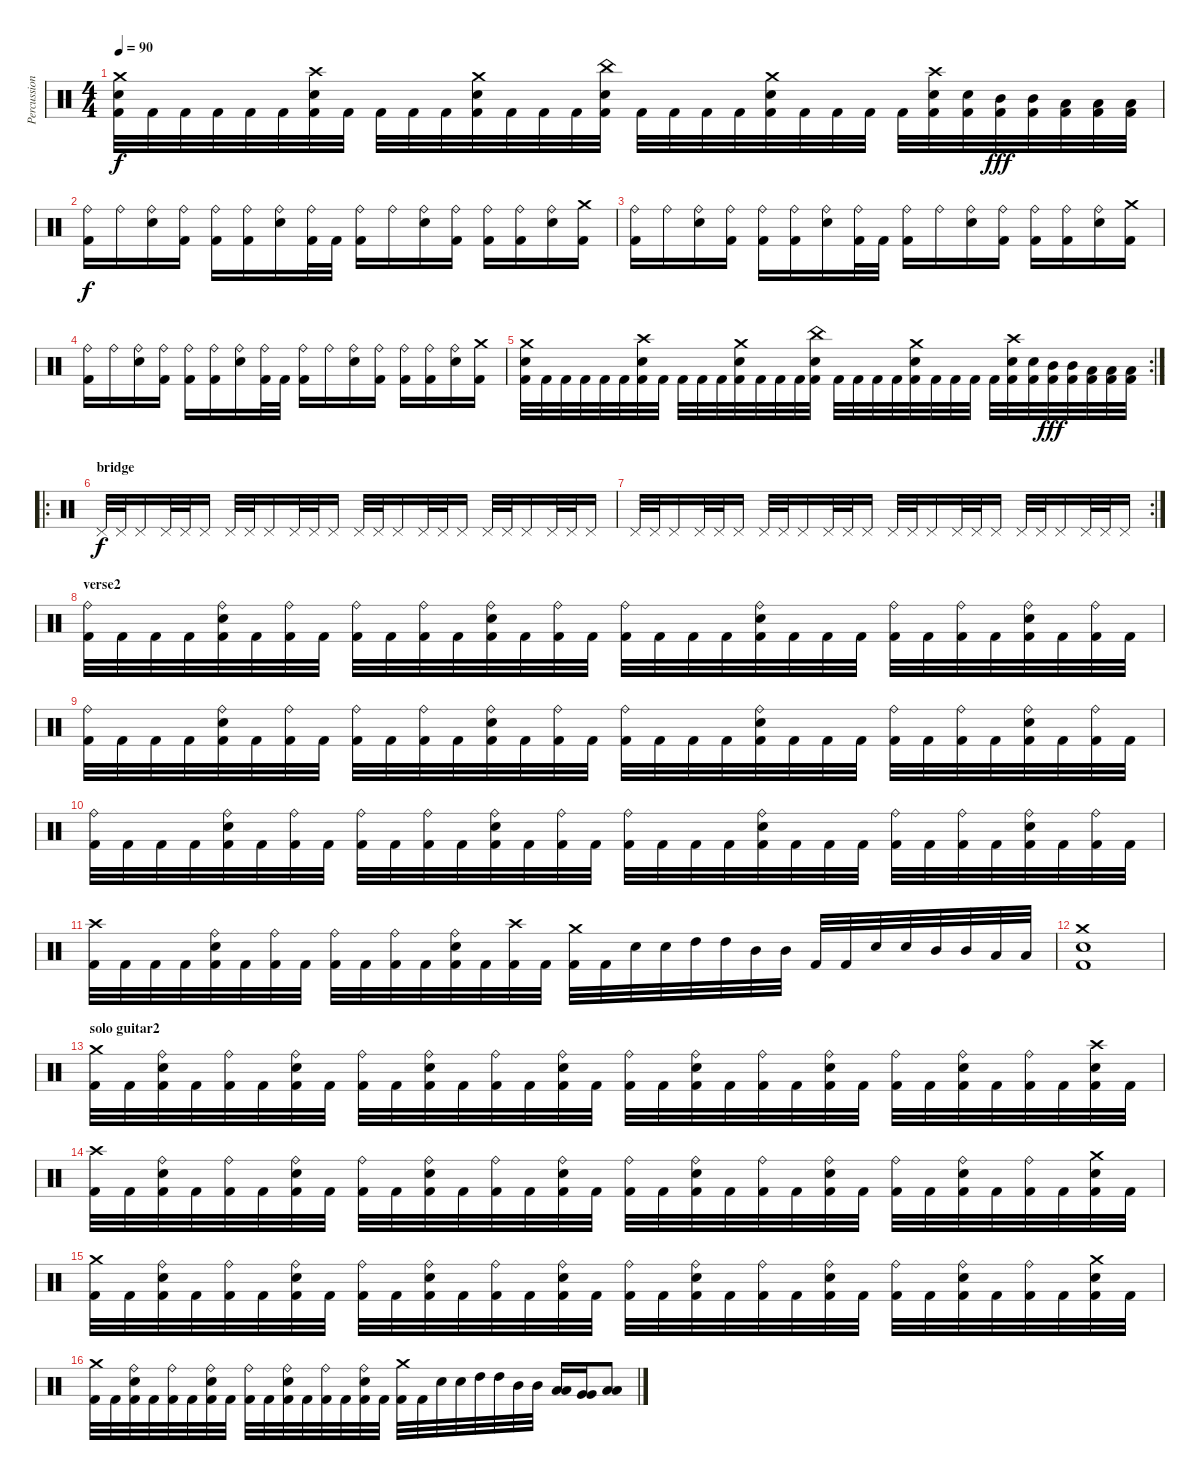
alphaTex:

\track ("Percussions" "Percussion") {instrument percussion}
\staff {score}
\articulation defaults
\ts (4 4)
\tempo 90
\clef neutral
\ks c
("Crash medium (hit)" "Electric Snare (hit)" "Kick (hit) 2").32{dy f} "Kick (hit) 2".32 "Kick (hit) 2".32 "Kick (hit) 2".32 "Kick (hit) 2".32 "Kick (hit) 2".32 ("Crash high (hit)" "Electric Snare (hit)" "Kick (hit) 2").32 "Kick (hit) 2".32 "Kick (hit) 2".32 "Kick (hit) 2".32 "Kick (hit) 2".32 ("Crash medium (hit)" "Electric Snare (hit)" "Kick (hit) 2").32 "Kick (hit) 2".32 "Kick (hit) 2".32 "Kick (hit) 2".32 ("China (hit)" "Electric Snare (hit)" "Kick (hit) 2").32 "Kick (hit) 2".32 "Kick (hit) 2".32 "Kick (hit) 2".32 "Kick (hit) 2".32 ("Crash medium (hit)" "Electric Snare (hit)" "Kick (hit) 2").32 "Kick (hit) 2".32 "Kick (hit) 2".32 "Kick (hit) 2".32 "Kick (hit) 2".32 ("Crash high (hit)" "Electric Snare (hit)" "Kick (hit) 2").32 ("Electric Snare (hit)" "Kick (hit) 2").32 ("Mid Tom (hit)" "Kick (hit) 2").32{dy fff} ("Mid Tom (hit)" "Kick (hit) 2").32 ("Low Tom (hit)" "Kick (hit) 2").32 ("Low Tom (hit)" "Kick (hit) 2").32 ("Low Tom (hit)" "Kick (hit) 2").32 |
("Ride (bell)" "Kick (hit) 2").16{dy f} "Ride (bell)".16 ("Ride (bell)" "Electric Snare (hit)").16 ("Ride (bell)" "Kick (hit) 2").16 ("Ride (bell)" "Kick (hit) 2").16 ("Ride (bell)" "Kick (hit) 2").16 ("Ride (bell)" "Electric Snare (hit)").16 ("Ride (bell)" "Kick (hit) 2").32 "Kick (hit) 2".32 ("Ride (bell)" "Kick (hit) 2").16 "Ride (bell)".16 ("Ride (bell)" "Electric Snare (hit)").16 ("Ride (bell)" "Kick (hit) 2").16 ("Ride (bell)" "Kick (hit) 2").16 ("Ride (bell)" "Kick (hit) 2").16 ("Ride (bell)" "Electric Snare (hit)").16 ("Crash medium (hit)" "Kick (hit) 2").16 |
("Ride (bell)" "Kick (hit) 2").16 "Ride (bell)".16 ("Ride (bell)" "Electric Snare (hit)").16 ("Ride (bell)" "Kick (hit) 2").16 ("Ride (bell)" "Kick (hit) 2").16 ("Ride (bell)" "Kick (hit) 2").16 ("Ride (bell)" "Electric Snare (hit)").16 ("Ride (bell)" "Kick (hit) 2").32 "Kick (hit) 2".32 ("Ride (bell)" "Kick (hit) 2").16 "Ride (bell)".16 ("Ride (bell)" "Electric Snare (hit)").16 ("Ride (bell)" "Kick (hit) 2").16 ("Ride (bell)" "Kick (hit) 2").16 ("Ride (bell)" "Kick (hit) 2").16 ("Ride (bell)" "Electric Snare (hit)").16 ("Crash medium (hit)" "Kick (hit) 2").16 |
("Ride (bell)" "Kick (hit) 2").16 "Ride (bell)".16 ("Ride (bell)" "Electric Snare (hit)").16 ("Ride (bell)" "Kick (hit) 2").16 ("Ride (bell)" "Kick (hit) 2").16 ("Ride (bell)" "Kick (hit) 2").16 ("Ride (bell)" "Electric Snare (hit)").16 ("Ride (bell)" "Kick (hit) 2").32 "Kick (hit) 2".32 ("Ride (bell)" "Kick (hit) 2").16 "Ride (bell)".16 ("Ride (bell)" "Electric Snare (hit)").16 ("Ride (bell)" "Kick (hit) 2").16 ("Ride (bell)" "Kick (hit) 2").16 ("Ride (bell)" "Kick (hit) 2").16 ("Ride (bell)" "Electric Snare (hit)").16 ("Crash medium (hit)" "Kick (hit) 2").16 |
\rc 2
("Crash medium (hit)" "Electric Snare (hit)" "Kick (hit) 2").32 "Kick (hit) 2".32 "Kick (hit) 2".32 "Kick (hit) 2".32 "Kick (hit) 2".32 "Kick (hit) 2".32 ("Crash high (hit)" "Electric Snare (hit)" "Kick (hit) 2").32 "Kick (hit) 2".32 "Kick (hit) 2".32 "Kick (hit) 2".32 "Kick (hit) 2".32 ("Crash medium (hit)" "Electric Snare (hit)" "Kick (hit) 2").32 "Kick (hit) 2".32 "Kick (hit) 2".32 "Kick (hit) 2".32 ("China (hit)" "Electric Snare (hit)" "Kick (hit) 2").32 "Kick (hit) 2".32 "Kick (hit) 2".32 "Kick (hit) 2".32 "Kick (hit) 2".32 ("Crash medium (hit)" "Electric Snare (hit)" "Kick (hit) 2").32 "Kick (hit) 2".32 "Kick (hit) 2".32 "Kick (hit) 2".32 "Kick (hit) 2".32 ("Crash high (hit)" "Electric Snare (hit)" "Kick (hit) 2").32 ("Electric Snare (hit)" "Kick (hit) 2").32 ("Mid Tom (hit)" "Kick (hit) 2").32{dy fff} ("Mid Tom (hit)" "Kick (hit) 2").32 ("Low Tom (hit)" "Kick (hit) 2").32 ("Low Tom (hit)" "Kick (hit) 2").32 ("Low Tom (hit)" "Kick (hit) 2").32 |
\ro
\section ("" "bridge")
"Pedal Hi-Hat (hit)".32{dy f} "Pedal Hi-Hat (hit)".32 "Pedal Hi-Hat (hit)".16 "Pedal Hi-Hat (hit)".32 "Pedal Hi-Hat (hit)".32 "Pedal Hi-Hat (hit)".16 "Pedal Hi-Hat (hit)".32 "Pedal Hi-Hat (hit)".32 "Pedal Hi-Hat (hit)".16 "Pedal Hi-Hat (hit)".32 "Pedal Hi-Hat (hit)".32 "Pedal Hi-Hat (hit)".16 "Pedal Hi-Hat (hit)".32 "Pedal Hi-Hat (hit)".32 "Pedal Hi-Hat (hit)".16 "Pedal Hi-Hat (hit)".32 "Pedal Hi-Hat (hit)".32 "Pedal Hi-Hat (hit)".16 "Pedal Hi-Hat (hit)".32 "Pedal Hi-Hat (hit)".32 "Pedal Hi-Hat (hit)".16 "Pedal Hi-Hat (hit)".32 "Pedal Hi-Hat (hit)".32 "Pedal Hi-Hat (hit)".16 |
\rc 2 "Pedal Hi-Hat (hit)".32 "Pedal Hi-Hat (hit)".32 "Pedal Hi-Hat (hit)".16 "Pedal Hi-Hat (hit)".32 "Pedal Hi-Hat (hit)".32 "Pedal Hi-Hat (hit)".16 "Pedal Hi-Hat (hit)".32 "Pedal Hi-Hat (hit)".32 "Pedal Hi-Hat (hit)".16 "Pedal Hi-Hat (hit)".32 "Pedal Hi-Hat (hit)".32 "Pedal Hi-Hat (hit)".16 "Pedal Hi-Hat (hit)".32 "Pedal Hi-Hat (hit)".32 "Pedal Hi-Hat (hit)".16 "Pedal Hi-Hat (hit)".32 "Pedal Hi-Hat (hit)".32 "Pedal Hi-Hat (hit)".16 "Pedal Hi-Hat (hit)".32 "Pedal Hi-Hat (hit)".32 "Pedal Hi-Hat (hit)".16 "Pedal Hi-Hat (hit)".32 "Pedal Hi-Hat (hit)".32 "Pedal Hi-Hat (hit)".16
|
\section ("" "verse2")
("Ride (bell)" "Kick (hit) 2").32 "Kick (hit) 2".32 "Kick (hit) 2".32 "Kick (hit) 2".32 ("Ride (bell)" "Electric Snare (hit)" "Kick (hit) 2").32 "Kick (hit) 2".32 ("Ride (bell)" "Kick (hit) 2").32 "Kick (hit) 2".32 ("Ride (bell)" "Kick (hit) 2").32 "Kick (hit) 2".32 ("Ride (bell)" "Kick (hit) 2").32 "Kick (hit) 2".32 ("Ride (bell)" "Electric Snare (hit)" "Kick (hit) 2").32 "Kick (hit) 2".32 ("Ride (bell)" "Kick (hit) 2").32 "Kick (hit) 2".32 ("Ride (bell)" "Kick (hit) 2").32 "Kick (hit) 2".32 "Kick (hit) 2".32 "Kick (hit) 2".32 ("Ride (bell)" "Electric Snare (hit)" "Kick (hit) 2").32 "Kick (hit) 2".32 "Kick (hit) 2".32 "Kick (hit) 2".32 ("Ride (bell)" "Kick (hit) 2").32 "Kick (hit) 2".32 ("Ride (bell)" "Kick (hit) 2").32 "Kick (hit) 2".32 ("Ride (bell)" "Electric Snare (hit)" "Kick (hit) 2").32 "Kick (hit) 2".32 ("Ride (bell)" "Kick (hit) 2").32 "Kick (hit) 2".32 |
("Ride (bell)" "Kick (hit) 2").32 "Kick (hit) 2".32 "Kick (hit) 2".32 "Kick (hit) 2".32 ("Ride (bell)" "Electric Snare (hit)" "Kick (hit) 2").32 "Kick (hit) 2".32 ("Ride (bell)" "Kick (hit) 2").32 "Kick (hit) 2".32 ("Ride (bell)" "Kick (hit) 2").32 "Kick (hit) 2".32 ("Ride (bell)" "Kick (hit) 2").32 "Kick (hit) 2".32 ("Ride (bell)" "Electric Snare (hit)" "Kick (hit) 2").32 "Kick (hit) 2".32 ("Ride (bell)" "Kick (hit) 2").32 "Kick (hit) 2".32 ("Ride (bell)" "Kick (hit) 2").32 "Kick (hit) 2".32 "Kick (hit) 2".32 "Kick (hit) 2".32 ("Ride (bell)" "Electric Snare (hit)" "Kick (hit) 2").32 "Kick (hit) 2".32 "Kick (hit) 2".32 "Kick (hit) 2".32 ("Ride (bell)" "Kick (hit) 2").32 "Kick (hit) 2".32 ("Ride (bell)" "Kick (hit) 2").32 "Kick (hit) 2".32 ("Ride (bell)" "Electric Snare (hit)" "Kick (hit) 2").32 "Kick (hit) 2".32 ("Ride (bell)" "Kick (hit) 2").32 "Kick (hit) 2".32 |
("Ride (bell)" "Kick (hit) 2").32 "Kick (hit) 2".32 "Kick (hit) 2".32 "Kick (hit) 2".32 ("Ride (bell)" "Electric Snare (hit)" "Kick (hit) 2").32 "Kick (hit) 2".32 ("Ride (bell)" "Kick (hit) 2").32 "Kick (hit) 2".32 ("Ride (bell)" "Kick (hit) 2").32 "Kick (hit) 2".32 ("Ride (bell)" "Kick (hit) 2").32 "Kick (hit) 2".32 ("Ride (bell)" "Electric Snare (hit)" "Kick (hit) 2").32 "Kick (hit) 2".32 ("Ride (bell)" "Kick (hit) 2").32 "Kick (hit) 2".32 ("Ride (bell)" "Kick (hit) 2").32 "Kick (hit) 2".32 "Kick (hit) 2".32 "Kick (hit) 2".32 ("Ride (bell)" "Electric Snare (hit)" "Kick (hit) 2").32 "Kick (hit) 2".32 "Kick (hit) 2".32 "Kick (hit) 2".32 ("Ride (bell)" "Kick (hit) 2").32 "Kick (hit) 2".32 ("Ride (bell)" "Kick (hit) 2").32 "Kick (hit) 2".32 ("Ride (bell)" "Electric Snare (hit)" "Kick (hit) 2").32 "Kick (hit) 2".32 ("Ride (bell)" "Kick (hit) 2").32 "Kick (hit) 2".32 |
("Crash high (hit)" "Kick (hit) 2").32 "Kick (hit) 2".32 "Kick (hit) 2".32 "Kick (hit) 2".32 ("Ride (bell)" "Electric Snare (hit)" "Kick (hit) 2").32 "Kick (hit) 2".32 ("Ride (bell)" "Kick (hit) 2").32 "Kick (hit) 2".32 ("Ride (bell)" "Kick (hit) 2").32 "Kick (hit) 2".32 ("Ride (bell)" "Kick (hit) 2").32 "Kick (hit) 2".32 ("Ride (bell)" "Electric Snare (hit)" "Kick (hit) 2").32 "Kick (hit) 2".32 ("Crash high (hit)" "Kick (hit) 2").32 "Kick (hit) 2".32 ("Crash medium (hit)" "Kick (hit) 2").32 "Kick (hit) 2".32 "Electric Snare (hit)".32 "Electric Snare (hit)".32 "High Tom (hit)".32 "High Tom (hit)".32 "Mid Tom (hit)".32 "Mid Tom (hit)".32 "Kick (hit) 2".32 "Kick (hit) 2".32 "Electric Snare (hit)".32 "Electric Snare (hit)".32 "Mid Tom (hit)".32 "Mid Tom (hit)".32 "Low Tom (hit)".32 "Low Tom (hit)".32 |
("Crash medium (hit)" "Electric Snare (hit)" "Kick (hit) 2").1 |
\section ("" "solo guitar2")
("Crash medium (hit)" "Kick (hit) 2").32 "Kick (hit) 2".32 ("Ride (bell)" "Electric Snare (hit)" "Kick (hit) 2").32 "Kick (hit) 2".32 ("Ride (bell)" "Kick (hit) 2").32 "Kick (hit) 2".32 ("Ride (bell)" "Electric Snare (hit)" "Kick (hit) 2").32 "Kick (hit) 2".32 ("Ride (bell)" "Kick (hit) 2").32 "Kick (hit) 2".32 ("Ride (bell)" "Electric Snare (hit)" "Kick (hit) 2").32 "Kick (hit) 2".32 ("Ride (bell)" "Kick (hit) 2").32 "Kick (hit) 2".32 ("Ride (bell)" "Electric Snare (hit)" "Kick (hit) 2").32 "Kick (hit) 2".32 ("Ride (bell)" "Kick (hit) 2").32 "Kick (hit) 2".32 ("Ride (bell)" "Electric Snare (hit)" "Kick (hit) 2").32 "Kick (hit) 2".32 ("Ride (bell)" "Kick (hit) 2").32 "Kick (hit) 2".32 ("Ride (bell)" "Electric Snare (hit)" "Kick (hit) 2").32 "Kick (hit) 2".32 ("Ride (bell)" "Kick (hit) 2").32 "Kick (hit) 2".32 ("Ride (bell)" "Electric Snare (hit)" "Kick (hit) 2").32 "Kick (hit) 2".32 ("Ride (bell)" "Kick (hit) 2").32 "Kick (hit) 2".32 ("Crash high (hit)" "Electric Snare (hit)" "Kick (hit) 2").32 "Kick (hit) 2".32 |
("Crash high (hit)" "Kick (hit) 2").32 "Kick (hit) 2".32 ("Ride (bell)" "Electric Snare (hit)" "Kick (hit) 2").32 "Kick (hit) 2".32 ("Ride (bell)" "Kick (hit) 2").32 "Kick (hit) 2".32 ("Ride (bell)" "Electric Snare (hit)" "Kick (hit) 2").32 "Kick (hit) 2".32 ("Ride (bell)" "Kick (hit) 2").32 "Kick (hit) 2".32 ("Ride (bell)" "Electric Snare (hit)" "Kick (hit) 2").32 "Kick (hit) 2".32 ("Ride (bell)" "Kick (hit) 2").32 "Kick (hit) 2".32 ("Ride (bell)" "Electric Snare (hit)" "Kick (hit) 2").32 "Kick (hit) 2".32 ("Ride (bell)" "Kick (hit) 2").32 "Kick (hit) 2".32 ("Ride (bell)" "Electric Snare (hit)" "Kick (hit) 2").32 "Kick (hit) 2".32 ("Ride (bell)" "Kick (hit) 2").32 "Kick (hit) 2".32 ("Ride (bell)" "Electric Snare (hit)" "Kick (hit) 2").32 "Kick (hit) 2".32 ("Ride (bell)" "Kick (hit) 2").32 "Kick (hit) 2".32 ("Ride (bell)" "Electric Snare (hit)" "Kick (hit) 2").32 "Kick (hit) 2".32 ("Ride (bell)" "Kick (hit) 2").32 "Kick (hit) 2".32 ("Crash medium (hit)" "Electric Snare (hit)" "Kick (hit) 2").32 "Kick (hit) 2".32 |
("Crash medium (hit)" "Kick (hit) 2").32 "Kick (hit) 2".32 ("Ride (bell)" "Electric Snare (hit)" "Kick (hit) 2").32 "Kick (hit) 2".32 ("Ride (bell)" "Kick (hit) 2").32 "Kick (hit) 2".32 ("Ride (bell)" "Electric Snare (hit)" "Kick (hit) 2").32 "Kick (hit) 2".32 ("Ride (bell)" "Kick (hit) 2").32 "Kick (hit) 2".32 ("Ride (bell)" "Electric Snare (hit)" "Kick (hit) 2").32 "Kick (hit) 2".32 ("Ride (bell)" "Kick (hit) 2").32 "Kick (hit) 2".32 ("Ride (bell)" "Electric Snare (hit)" "Kick (hit) 2").32 "Kick (hit) 2".32 ("Ride (bell)" "Kick (hit) 2").32 "Kick (hit) 2".32 ("Ride (bell)" "Electric Snare (hit)" "Kick (hit) 2").32 "Kick (hit) 2".32 ("Ride (bell)" "Kick (hit) 2").32 "Kick (hit) 2".32 ("Ride (bell)" "Electric Snare (hit)" "Kick (hit) 2").32 "Kick (hit) 2".32 ("Ride (bell)" "Kick (hit) 2").32 "Kick (hit) 2".32 ("Ride (bell)" "Electric Snare (hit)" "Kick (hit) 2").32 "Kick (hit) 2".32 ("Ride (bell)" "Kick (hit) 2").32 "Kick (hit) 2".32 ("Crash medium (hit)" "Electric Snare (hit)" "Kick (hit) 2").32 "Kick (hit) 2".32 |
("Crash medium (hit)" "Kick (hit) 2").32 "Kick (hit) 2".32 ("Ride (bell)" "Electric Snare (hit)" "Kick (hit) 2").32 "Kick (hit) 2".32 ("Ride (bell)" "Kick (hit) 2").32 "Kick (hit) 2".32 ("Ride (bell)" "Electric Snare (hit)" "Kick (hit) 2").32 "Kick (hit) 2".32 ("Ride (bell)" "Kick (hit) 2").32 "Kick (hit) 2".32 ("Ride (bell)" "Electric Snare (hit)" "Kick (hit) 2").32 "Kick (hit) 2".32 ("Ride (bell)" "Kick (hit) 2").32 "Kick (hit) 2".32 ("Ride (bell)" "Electric Snare (hit)" "Kick (hit) 2").32 "Kick (hit) 2".32 ("Crash medium (hit)" "Kick (hit) 2").32 "Kick (hit) 2".32 "Electric Snare (hit)".32 "Electric Snare (hit)".32 "High Tom (hit)".32 "High Tom (hit)".32 "Mid Tom (hit)".32 "Mid Tom (hit)".32 ("Low Tom (hit)" "Low Tom (hit)").16 ("Very Low Tom (hit)" "Very Low Tom (hit)").16 ("Low Tom (hit)" "Low Tom (hit)").8
